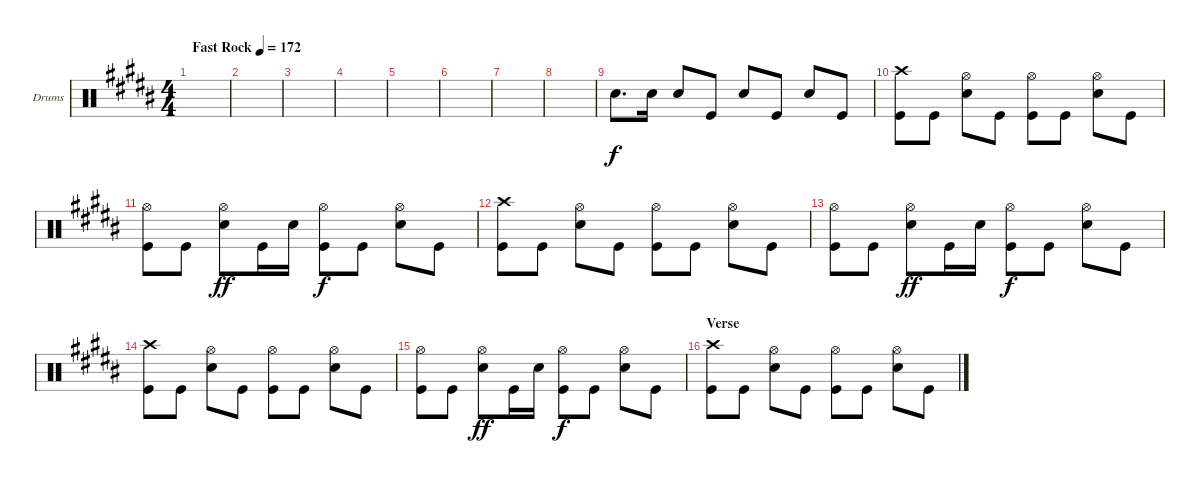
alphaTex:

\defaultSystemsLayout 4
\bracketExtendMode groupsimilarinstruments
\firstSystemTrackNameOrientation horizontal
\otherSystemsTrackNameOrientation horizontal
\track ("Drumkit" "Drums") {instrument percussion}
\staff {score}
\articulation defaults
\ts (4 4)
\tempo (172 "Fast Rock")
\clef neutral
\scale
1.1034
\ks b
|
\scale
0.896595 |
\scale
1.07314 |
\scale
0.92686 |
\scale
1.07314 |
\scale
0.92686 |
\scale
1.07314 |
\scale
0.92686 |
\scale
1.07314 "Snare (hit) 2".8{d} "Snare (hit) 2".16 "Snare (hit) 2".8 "Kick (hit)".8 "Snare (hit) 2".8 "Kick (hit)".8 "Snare (hit) 2".8 "Kick (hit)".8 |
\scale
0.92686 ("Crash high (hit)" "Kick (hit)").8 "Kick (hit)".8 ("Hi-Hat (open)" "Snare (hit) 2").8 "Kick (hit)".8 ("Hi-Hat (open)" "Kick (hit)").8 "Kick (hit)".8 ("Hi-Hat (open)" "Snare (hit) 2").8 "Kick (hit)".8 |
\scale
1.07314 ("Hi-Hat (open)" "Kick (hit)").8 "Kick (hit)".8 ("Hi-Hat (open)" "Snare (hit) 2").8{dy ff} "Kick (hit)".16 "Snare (hit) 2".16 ("Hi-Hat (open)" "Kick (hit)").8{dy f} "Kick (hit)".8 ("Hi-Hat (open)" "Snare (hit) 2").8 "Kick (hit)".8 |
\scale
0.92686 ("Crash high (hit)" "Kick (hit)").8 "Kick (hit)".8 ("Hi-Hat (open)" "Snare (hit) 2").8 "Kick (hit)".8 ("Hi-Hat (open)" "Kick (hit)").8 "Kick (hit)".8 ("Hi-Hat (open)" "Snare (hit) 2").8 "Kick (hit)".8 |
\scale
1.07314 ("Hi-Hat (open)" "Kick (hit)").8 "Kick (hit)".8 ("Hi-Hat (open)" "Snare (hit) 2").8{dy ff} "Kick (hit)".16 "Snare (hit) 2".16 ("Hi-Hat (open)" "Kick (hit)").8{dy f} "Kick (hit)".8 ("Hi-Hat (open)" "Snare (hit) 2").8 "Kick (hit)".8 |
\scale
0.92686 ("Crash high (hit)" "Kick (hit)").8 "Kick (hit)".8 ("Hi-Hat (open)" "Snare (hit) 2").8 "Kick (hit)".8 ("Hi-Hat (open)" "Kick (hit)").8 "Kick (hit)".8 ("Hi-Hat (open)" "Snare (hit) 2").8 "Kick (hit)".8 |
\scale
1.07314 ("Hi-Hat (open)" "Kick (hit)").8 "Kick (hit)".8 ("Hi-Hat (open)" "Snare (hit) 2").8{dy ff} "Kick (hit)".16 "Snare (hit) 2".16 ("Hi-Hat (open)" "Kick (hit)").8{dy f} "Kick (hit)".8 ("Hi-Hat (open)" "Snare (hit) 2").8 "Kick (hit)".8 |
\section ("" "Verse")
\scale
0.92686 ("Crash high (hit)" "Kick (hit)").8 "Kick (hit)".8 ("Hi-Hat (open)" "Snare (hit) 2").8 "Kick (hit)".8 ("Hi-Hat (open)" "Kick (hit)").8 "Kick (hit)".8 ("Hi-Hat (open)" "Snare (hit) 2").8 "Kick (hit)".8
